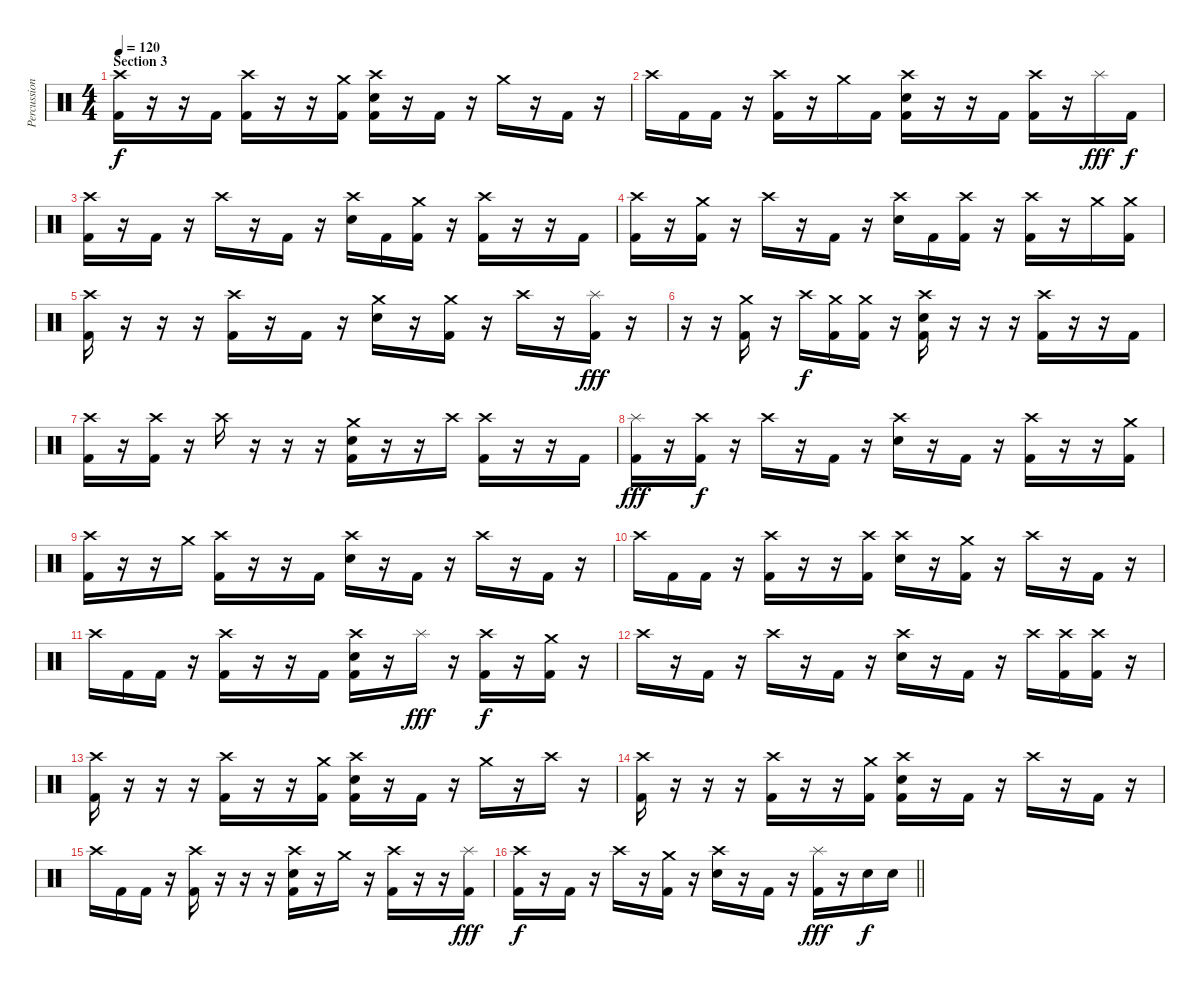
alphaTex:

\track ("Percussion" "Percussion") {instrument percussion}
\staff {score}
\articulation defaults
\ts (4 4)
\section ("" "Section 3")
\tempo 120
\clef neutral
\ks c
("Crash high (hit)" "Kick (hit) 2").16{dy f} r.16 r.16 "Kick (hit) 2".16 ("Crash high (hit)" "Kick (hit) 2").16 r.16 r.16 ("Crash medium (hit)" "Kick (hit) 2").16 ("Crash high (hit)" "Electric Snare (hit)" "Kick (hit) 2").16 r.16 "Kick (hit) 2".16 r.16 "Crash medium (hit)".16 r.16 "Kick (hit) 2".16 r.16 |
"Crash high (hit)".16 "Kick (hit) 2".16 "Kick (hit) 2".16 r.16 ("Crash high (hit)" "Kick (hit) 2").16 r.16 "Crash medium (hit)".16 "Kick (hit) 2".16 ("Crash high (hit)" "Electric Snare (hit)" "Kick (hit) 2").16 r.16 r.16 "Kick (hit) 2".16 ("Crash high (hit)" "Kick (hit) 2").16 r.16 "Splash (hit)".16{dy fff} "Kick (hit) 2".16{dy f} |
("Crash high (hit)" "Kick (hit) 2").16 r.16 "Kick (hit) 2".16 r.16 "Crash high (hit)".16 r.16 "Kick (hit) 2".16 r.16 ("Crash high (hit)" "Electric Snare (hit)").16 "Kick (hit) 2".16 ("Crash medium (hit)" "Kick (hit) 2").16 r.16 ("Crash high (hit)" "Kick (hit) 2").16 r.16 r.16 "Kick (hit) 2".16 |
("Crash high (hit)" "Kick (hit) 2").16 r.16 ("Crash medium (hit)" "Kick (hit) 2").16 r.16 "Crash high (hit)".16 r.16 "Kick (hit) 2".16 r.16 ("Crash high (hit)" "Electric Snare (hit)").16 "Kick (hit) 2".16 ("Crash high (hit)" "Kick (hit) 2").16 r.16 ("Crash high (hit)" "Kick (hit) 2").16 r.16 "Crash medium (hit)".16 ("Crash medium (hit)" "Kick (hit) 2").16 |
("Crash high (hit)" "Kick (hit) 2").16 r.16 r.16 r.16 ("Crash high (hit)" "Kick (hit) 2").16 r.16 "Kick (hit) 2".16 r.16 ("Crash medium (hit)" "Electric Snare (hit)").16 r.16 ("Crash medium (hit)" "Kick (hit) 2").16 r.16 "Crash high (hit)".16 r.16 ("Splash (hit)" "Kick (hit) 2").16{dy fff} r.16 |
r.16 r.16 ("Crash medium (hit)" "Kick (hit) 2").16 r.16 "Crash high (hit)".16{dy f} ("Crash medium (hit)" "Kick (hit) 2").16 ("Crash medium (hit)" "Kick (hit) 2").16 r.16 ("Crash high (hit)" "Electric Snare (hit)" "Kick (hit) 2").16 r.16 r.16 r.16 ("Crash high (hit)" "Kick (hit) 2").16 r.16 r.16 "Kick (hit) 2".16 |
("Crash high (hit)" "Kick (hit) 2").16 r.16 ("Crash high (hit)" "Kick (hit) 2").16 r.16 "Crash high (hit)".16 r.16 r.16 r.16 ("Crash medium (hit)" "Electric Snare (hit)" "Kick (hit) 2").16 r.16 r.16 "Crash high (hit)".16 ("Crash high (hit)" "Kick (hit) 2").16 r.16 r.16 "Kick (hit) 2".16 |
("Splash (hit)" "Kick (hit) 2").16{dy fff} r.16 ("Crash high (hit)" "Kick (hit) 2").16{dy f} r.16 "Crash high (hit)".16 r.16 "Kick (hit) 2".16 r.16 ("Crash high (hit)" "Electric Snare (hit)").16 r.16 "Kick (hit) 2".16 r.16 ("Crash high (hit)" "Kick (hit) 2").16 r.16 r.16 ("Crash medium (hit)" "Kick (hit) 2").16 |
("Crash high (hit)" "Kick (hit) 2").16 r.16 r.16 "Crash medium (hit)".16 ("Crash high (hit)" "Kick (hit) 2").16 r.16 r.16 "Kick (hit) 2".16 ("Crash high (hit)" "Electric Snare (hit)").16 r.16 "Kick (hit) 2".16 r.16 "Crash high (hit)".16 r.16 "Kick (hit) 2".16 r.16 |
"Crash high (hit)".16 "Kick (hit) 2".16 "Kick (hit) 2".16 r.16 ("Crash high (hit)" "Kick (hit) 2").16 r.16 r.16 ("Crash high (hit)" "Kick (hit) 2").16 ("Crash high (hit)" "Electric Snare (hit)").16 r.16 ("Crash medium (hit)" "Kick (hit) 2").16 r.16 "Crash high (hit)".16 r.16 "Kick (hit) 2".16 r.16 |
"Crash high (hit)".16 "Kick (hit) 2".16 "Kick (hit) 2".16 r.16 ("Crash high (hit)" "Kick (hit) 2").16 r.16 r.16 "Kick (hit) 2".16 ("Crash high (hit)" "Electric Snare (hit)" "Kick (hit) 2").16 r.16 "Splash (hit)".16{dy fff} r.16 ("Crash high (hit)" "Kick (hit) 2").16{dy f} r.16 ("Crash medium (hit)" "Kick (hit) 2").16 r.16 |
"Crash high (hit)".16 r.16 "Kick (hit) 2".16 r.16 "Crash high (hit)".16 r.16 "Kick (hit) 2".16 r.16 ("Crash high (hit)" "Electric Snare (hit)").16 r.16 "Kick (hit) 2".16 r.16 "Crash high (hit)".16 ("Crash high (hit)" "Kick (hit) 2").16 ("Crash high (hit)" "Kick (hit) 2").16 r.16 |
("Crash high (hit)" "Kick (hit) 2").16 r.16 r.16 r.16 ("Crash high (hit)" "Kick (hit) 2").16 r.16 r.16 ("Crash medium (hit)" "Kick (hit) 2").16 ("Crash high (hit)" "Electric Snare (hit)" "Kick (hit) 2").16 r.16 "Kick (hit) 2".16 r.16 "Crash medium (hit)".16 r.16 "Crash high (hit)".16 r.16 |
("Crash high (hit)" "Kick (hit) 2").16 r.16 r.16 r.16 ("Crash high (hit)" "Kick (hit) 2").16 r.16 r.16 ("Crash medium (hit)" "Kick (hit) 2").16 ("Crash high (hit)" "Electric Snare (hit)" "Kick (hit) 2").16 r.16 "Kick (hit) 2".16 r.16 "Crash high (hit)".16 r.16 "Kick (hit) 2".16 r.16 |
"Crash high (hit)".16 "Kick (hit) 2".16 "Kick (hit) 2".16 r.16 ("Crash high (hit)" "Kick (hit) 2").16 r.16 r.16 r.16 ("Crash high (hit)" "Electric Snare (hit)" "Kick (hit) 2").16 r.16 "Crash medium (hit)".16 r.16 ("Crash high (hit)" "Kick (hit) 2").16 r.16 r.16 ("Splash (hit)" "Kick (hit) 2").16{dy fff} |
\barLineRight lightlight
("Crash high (hit)" "Kick (hit) 2").16{dy f} r.16 "Kick (hit) 2".16 r.16 "Crash high (hit)".16 r.16 ("Crash medium (hit)" "Kick (hit) 2").16 r.16 ("Crash high (hit)" "Electric Snare (hit)").16 r.16 "Kick (hit) 2".16 r.16 ("Splash (hit)" "Kick (hit) 2").16{dy fff} r.16 "Electric Snare (hit)".16{dy f} "Electric Snare (hit)".16
